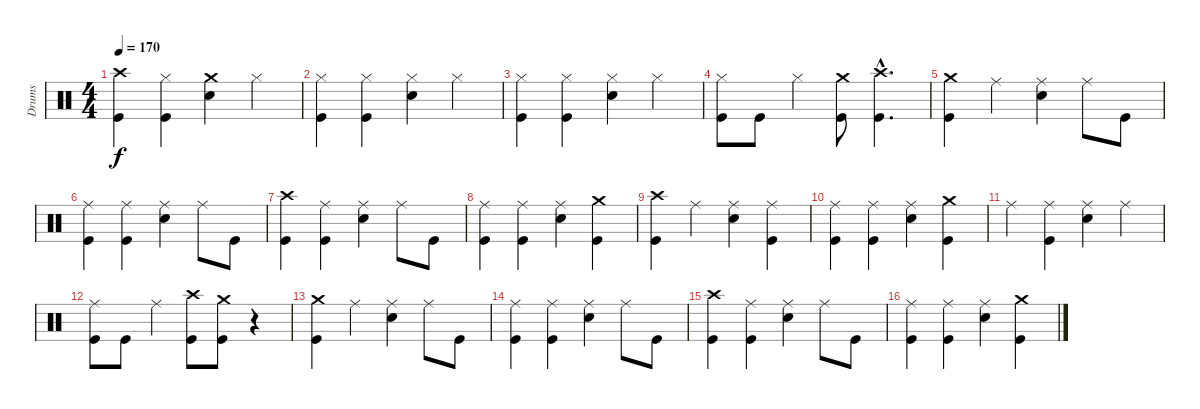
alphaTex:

\track ("Drums" "Drums") {instrument percussion}
\staff {score}
\articulation defaults
\ts (4 4)
\tempo 170
\clef neutral
\ks c
("Crash high (hit)" "Kick (hit)").4{dy f} ("Hi-Hat (closed)" "Kick (hit)").4 ("Crash medium (hit)" "Snare (hit) 2").4 "Hi-Hat (closed)".4 |
("Hi-Hat (closed)" "Kick (hit)").4 ("Hi-Hat (closed)" "Kick (hit)").4 ("Hi-Hat (closed)" "Snare (hit) 2").4 "Hi-Hat (closed)".4 |
("Hi-Hat (closed)" "Kick (hit)").4 ("Hi-Hat (closed)" "Kick (hit)").4 ("Hi-Hat (closed)" "Snare (hit) 2").4 "Hi-Hat (closed)".4 |
("Hi-Hat (closed)" "Kick (hit)").8 "Kick (hit)".8 "Hi-Hat (closed)".4 ("Crash medium (hit)" "Kick (hit)").8 ("Crash high (hit)"{hac} "Kick (hit)"{hac}).4{d} |
("Crash medium (hit)" "Kick (hit)").4 "Ride (middle)".4 ("Ride (middle)" "Snare (hit) 2").4 "Ride (middle)".8 "Kick (hit)".8 |
("Ride (middle)" "Kick (hit)").4 ("Ride (middle)" "Kick (hit)").4 ("Ride (middle)" "Snare (hit) 2").4 "Ride (middle)".8 "Kick (hit)".8 |
("Crash high (hit)" "Kick (hit)").4 ("Ride (middle)" "Kick (hit)").4 ("Ride (middle)" "Snare (hit) 2").4 "Ride (middle)".8 "Kick (hit)".8 |
("Ride (middle)" "Kick (hit)").4 ("Ride (middle)" "Kick (hit)").4 ("Ride (middle)" "Snare (hit) 2").4 ("Crash medium (hit)" "Kick (hit)").4 |
("Crash high (hit)" "Kick (hit)").4 "Ride (middle)".4 ("Ride (middle)" "Snare (hit) 2").4 ("Ride (middle)" "Kick (hit)").4 |
("Ride (middle)" "Kick (hit)").4 ("Ride (middle)" "Kick (hit)").4 ("Ride (middle)" "Snare (hit) 2").4 ("Crash medium (hit)" "Kick (hit)").4 |
"Ride (middle)".4 ("Ride (middle)" "Kick (hit)").4 ("Ride (middle)" "Snare (hit) 2").4 "Ride (middle)".4 |
("Ride (middle)" "Kick (hit)").8 "Kick (hit)".8 "Ride (middle)".4 ("Crash high (hit)" "Kick (hit)").8 ("Crash medium (hit)" "Kick (hit)").8 r.4 |
("Crash medium (hit)" "Kick (hit)").4 "Ride (middle)".4 ("Ride (middle)" "Snare (hit) 2").4 "Ride (middle)".8 "Kick (hit)".8 |
("Ride (middle)" "Kick (hit)").4 ("Ride (middle)" "Kick (hit)").4 ("Ride (middle)" "Snare (hit) 2").4 "Ride (middle)".8 "Kick (hit)".8 |
("Crash high (hit)" "Kick (hit)").4 ("Ride (middle)" "Kick (hit)").4 ("Ride (middle)" "Snare (hit) 2").4 "Ride (middle)".8 "Kick (hit)".8 |
("Ride (middle)" "Kick (hit)").4 ("Ride (middle)" "Kick (hit)").4 ("Ride (middle)" "Snare (hit) 2").4 ("Crash medium (hit)" "Kick (hit)").4
